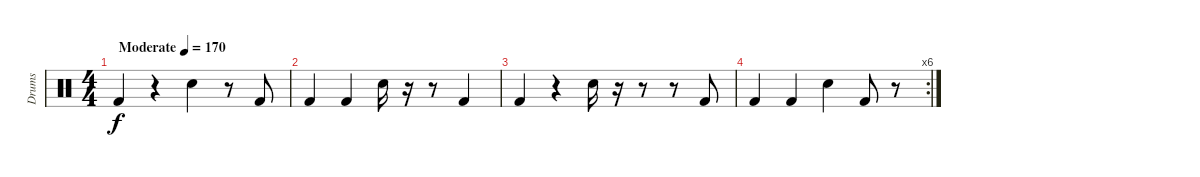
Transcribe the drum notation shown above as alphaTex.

\track ("Drums" "Drums") {instrument percussion}
\staff {score}
\articulation defaults
\ts (4 4)
\tempo (170 "Moderate")
\clef neutral
\ks c "Kick (hit) 2".4{dy f}
r.4 "Snare (hit) 2".4 r.8 "Kick (hit) 2".8 |
"Kick (hit) 2".4 "Kick (hit) 2".4 "Snare (hit) 2".16 r.16 r.8 "Kick (hit) 2".4 |
"Kick (hit) 2".4 r.4 "Snare (hit) 2".16 r.16 r.8 r.8 "Kick (hit) 2".8 |
\rc 6 "Kick (hit) 2".4 "Kick (hit) 2".4 "Snare (hit) 2".4 "Kick (hit) 2".8
r.8
